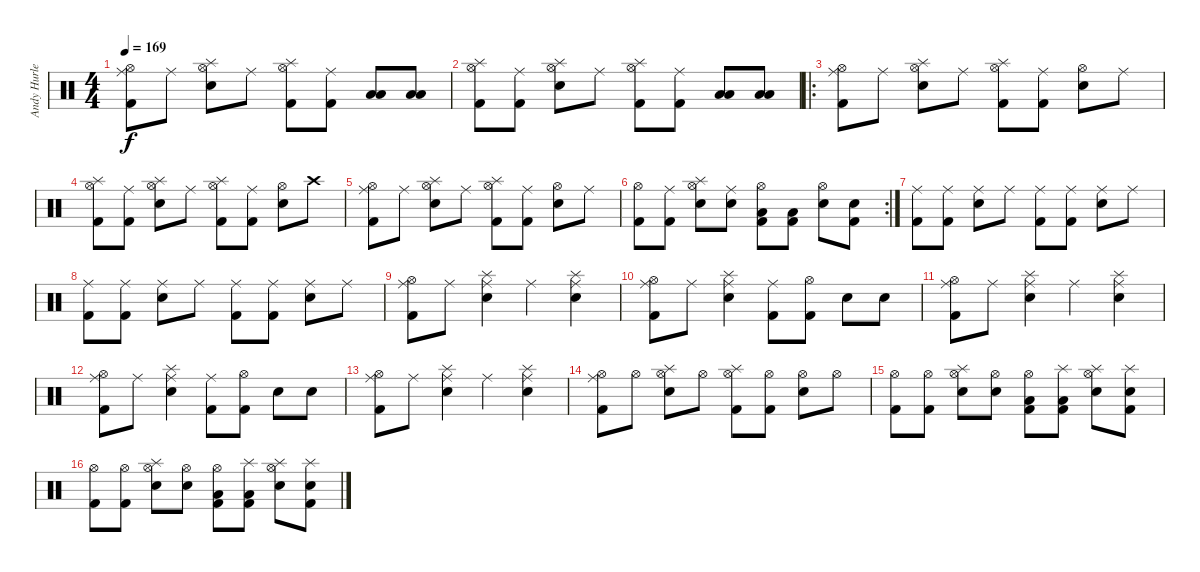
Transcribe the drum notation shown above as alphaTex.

\track ("Andy Hurley" "Andy Hurle") {instrument percussion}
\staff {score}
\articulation defaults
\ts (4 4)
\tempo 169
\clef neutral
\ks c
("Hi-Hat (open)" "Ride (middle)" "Kick (hit) 2").8{dy f} "Ride (middle)".8 ("Hi-Hat (open)" "Splash (hit)" "Electric Snare (hit)").8 "Ride (middle)".8 ("Hi-Hat (open)" "Splash (hit)" "Kick (hit) 2").8 ("Ride (middle)" "Kick (hit) 2").8 ("Low Floor Tom (hit)" "Low Tom (hit)").8 ("Low Floor Tom (hit)" "Low Tom (hit)").8 |
("Hi-Hat (open)" "Splash (hit)" "Kick (hit) 2").8 ("Ride (middle)" "Kick (hit) 2").8 ("Hi-Hat (open)" "Splash (hit)" "Electric Snare (hit)").8 "Ride (middle)".8 ("Hi-Hat (open)" "Splash (hit)" "Kick (hit) 2").8 ("Ride (middle)" "Kick (hit) 2").8 ("Low Floor Tom (hit)" "Low Tom (hit)").8 ("Low Floor Tom (hit)" "Low Tom (hit)").8 |
\ro
("Hi-Hat (open)" "Ride (middle)" "Kick (hit) 2").8 "Ride (middle)".8 ("Hi-Hat (open)" "Splash (hit)" "Electric Snare (hit)").8 "Ride (middle)".8 ("Hi-Hat (open)" "Splash (hit)" "Kick (hit) 2").8 ("Ride (middle)" "Kick (hit) 2").8 ("Hi-Hat (open)" "Electric Snare (hit)").8 "Ride (middle)".8 |
("Hi-Hat (open)" "Splash (hit)" "Kick (hit) 2").8 ("Ride (middle)" "Kick (hit) 2").8 ("Hi-Hat (open)" "Splash (hit)" "Electric Snare (hit)").8 "Ride (middle)".8 ("Hi-Hat (open)" "Splash (hit)" "Kick (hit) 2").8 ("Ride (middle)" "Kick (hit) 2").8 ("Hi-Hat (open)" "Electric Snare (hit)").8 "Crash high (hit)".8 |
("Hi-Hat (open)" "Ride (middle)" "Kick (hit) 2").8 "Ride (middle)".8 ("Hi-Hat (open)" "Splash (hit)" "Electric Snare (hit)").8 "Ride (middle)".8 ("Hi-Hat (open)" "Splash (hit)" "Kick (hit) 2").8 ("Ride (middle)" "Kick (hit) 2").8 ("Hi-Hat (open)" "Electric Snare (hit)").8 "Ride (middle)".8 |
\rc 2
("Hi-Hat (open)" "Kick (hit) 2").8 ("Ride (middle)" "Kick (hit) 2").8 ("Hi-Hat (open)" "Splash (hit)" "Electric Snare (hit)").8 ("Ride (middle)" "Electric Snare (hit)").8 ("Hi-Hat (open)" "Kick (hit) 2" "Low Floor Tom (hit)").8 ("Kick (hit) 2" "Low Floor Tom (hit)").8 ("Hi-Hat (open)" "Snare (hit) 2").8 ("Electric Snare (hit)" "Kick (hit) 2").8 |
("Ride (middle)" "Kick (hit) 2").8 ("Ride (middle)" "Kick (hit) 2").8 ("Ride (middle)" "Electric Snare (hit)").8 "Ride (middle)".8 ("Ride (middle)" "Kick (hit) 2").8 ("Ride (middle)" "Kick (hit) 2").8 ("Ride (middle)" "Electric Snare (hit)").8 "Ride (middle)".8 |
("Ride (middle)" "Kick (hit) 2").8 ("Ride (middle)" "Kick (hit) 2").8 ("Ride (middle)" "Electric Snare (hit)").8 "Ride (middle)".8 ("Ride (middle)" "Kick (hit) 2").8 ("Ride (middle)" "Kick (hit) 2").8 ("Ride (middle)" "Electric Snare (hit)").8 "Ride (middle)".8 |
("Hi-Hat (open)" "Ride (middle)" "Kick (hit) 2").8 "Ride (middle)".8 ("Ride (middle)" "Splash (hit)" "Electric Snare (hit)").4 "Ride (middle)".4 ("Ride (middle)" "Splash (hit)" "Electric Snare (hit)").4 |
("Hi-Hat (open)" "Ride (middle)" "Kick (hit) 2").8 "Ride (middle)".8 ("Ride (middle)" "Splash (hit)" "Electric Snare (hit)").4 ("Ride (middle)" "Kick (hit) 2").8 ("Hi-Hat (open)" "Kick (hit) 2").8 "Electric Snare (hit)".8 "Snare (hit) 2".8 |
("Hi-Hat (open)" "Ride (middle)" "Kick (hit) 2").8 "Ride (middle)".8 ("Ride (middle)" "Splash (hit)" "Electric Snare (hit)").4 "Ride (middle)".4 ("Ride (middle)" "Splash (hit)" "Electric Snare (hit)").4 |
("Hi-Hat (open)" "Ride (middle)" "Kick (hit) 2").8 "Ride (middle)".8 ("Ride (middle)" "Splash (hit)" "Electric Snare (hit)").4 ("Ride (middle)" "Kick (hit) 2").8 ("Hi-Hat (open)" "Kick (hit) 2").8 "Electric Snare (hit)".8 "Snare (hit) 2".8 |
("Hi-Hat (open)" "Ride (middle)" "Kick (hit) 2").8 "Ride (middle)".8 ("Ride (middle)" "Splash (hit)" "Electric Snare (hit)").4 "Ride (middle)".4 ("Ride (middle)" "Splash (hit)" "Electric Snare (hit)").4 |
("Hi-Hat (open)" "Ride (middle)" "Kick (hit) 2").8 "Hi-Hat (open)".8 ("Hi-Hat (open)" "Splash (hit)" "Electric Snare (hit)").8 "Hi-Hat (open)".8 ("Hi-Hat (open)" "Splash (hit)" "Kick (hit) 2").8 ("Hi-Hat (open)" "Kick (hit) 2").8 ("Hi-Hat (open)" "Electric Snare (hit)").8 "Hi-Hat (open)".8 |
("Hi-Hat (open)" "Kick (hit) 2").8 ("Hi-Hat (open)" "Kick (hit) 2").8 ("Hi-Hat (open)" "Splash (hit)" "Electric Snare (hit)").8 ("Hi-Hat (open)" "Electric Snare (hit)").8 ("Hi-Hat (open)" "Kick (hit) 2" "Low Floor Tom (hit)").8 ("Splash (hit)" "Kick (hit) 2" "Low Floor Tom (hit)").8 ("Splash (hit)" "Hi-Hat (open)" "Snare (hit) 2").8 ("Splash (hit)" "Electric Snare (hit)" "Kick (hit) 2").8 |
("Hi-Hat (open)" "Kick (hit) 2").8 ("Hi-Hat (open)" "Kick (hit) 2").8 ("Hi-Hat (open)" "Splash (hit)" "Electric Snare (hit)").8 ("Hi-Hat (open)" "Electric Snare (hit)").8 ("Hi-Hat (open)" "Kick (hit) 2" "Low Floor Tom (hit)").8 ("Splash (hit)" "Kick (hit) 2" "Low Floor Tom (hit)").8 ("Splash (hit)" "Hi-Hat (open)" "Snare (hit) 2").8 ("Splash (hit)" "Electric Snare (hit)" "Kick (hit) 2").8
